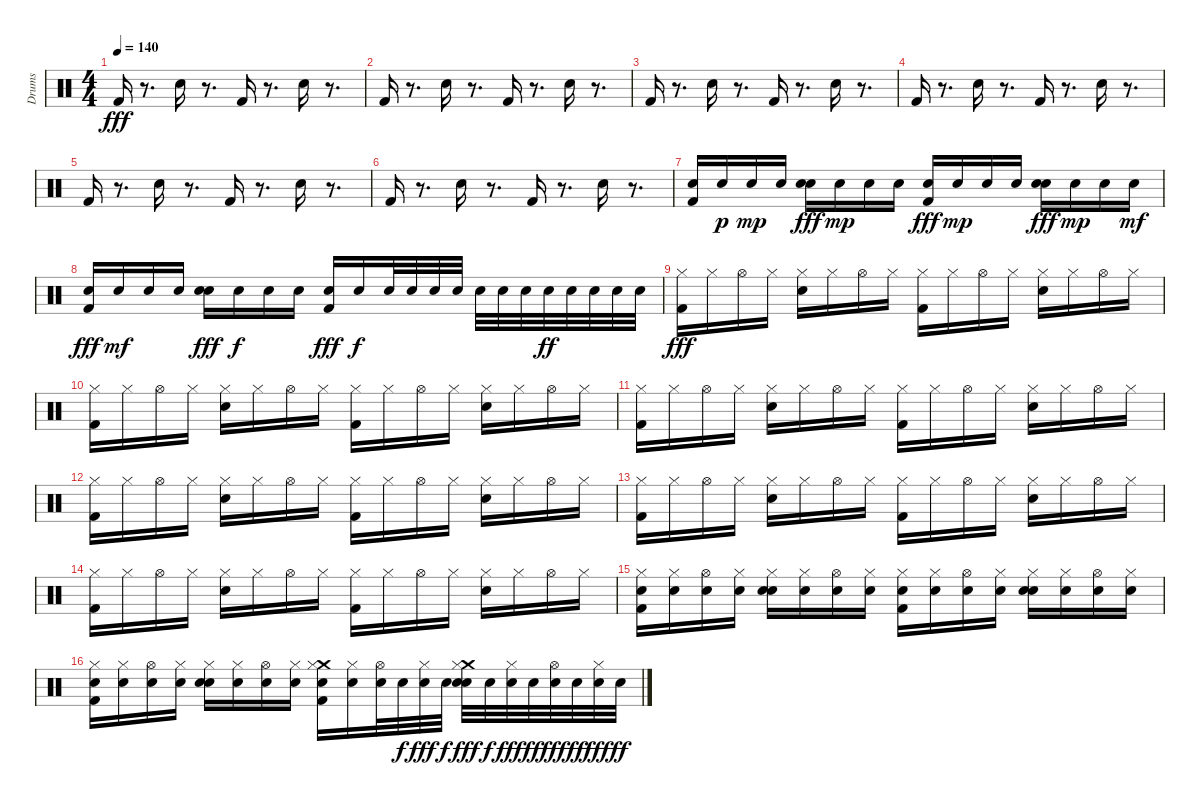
\track ("Drums" "Drums") {instrument percussion}
\staff {score}
\articulation defaults
\ts (4 4)
\tempo 140
\clef neutral
\ks c "Kick (hit) 2".16{dy fff}
r.8{d} "Electric Snare (hit)".16 r.8{d} "Kick (hit) 2".16 r.8{d} "Electric Snare (hit)".16 r.8{d} |
"Kick (hit) 2".16 r.8{d} "Electric Snare (hit)".16 r.8{d} "Kick (hit) 2".16 r.8{d} "Electric Snare (hit)".16 r.8{d} |
"Kick (hit) 2".16 r.8{d} "Electric Snare (hit)".16 r.8{d} "Kick (hit) 2".16 r.8{d} "Electric Snare (hit)".16 r.8{d} |
"Kick (hit) 2".16 r.8{d} "Electric Snare (hit)".16 r.8{d} "Kick (hit) 2".16 r.8{d} "Electric Snare (hit)".16 r.8{d} |
"Kick (hit) 2".16 r.8{d} "Electric Snare (hit)".16 r.8{d} "Kick (hit) 2".16 r.8{d} "Electric Snare (hit)".16 r.8{d} |
"Kick (hit) 2".16 r.8{d} "Electric Snare (hit)".16 r.8{d} "Kick (hit) 2".16 r.8{d} "Electric Snare (hit)".16 r.8{d} |
("Snare (hit) 2" "Kick (hit) 2").16 "Snare (hit) 2".16{dy p} "Snare (hit) 2".16{dy mp} "Snare (hit) 2".16 ("Snare (hit) 2" "Electric Snare (hit)").16{dy fff} "Snare (hit) 2".16{dy mp} "Snare (hit) 2".16 "Snare (hit) 2".16 ("Snare (hit) 2" "Kick (hit) 2").16{dy fff} "Snare (hit) 2".16{dy mp} "Snare (hit) 2".16 "Snare (hit) 2".16 ("Snare (hit) 2" "Electric Snare (hit)").16{dy fff} "Snare (hit) 2".16{dy mp} "Snare (hit) 2".16 "Snare (hit) 2".16{dy mf} |
("Snare (hit) 2" "Kick (hit) 2").16{dy fff} "Snare (hit) 2".16{dy mf} "Snare (hit) 2".16 "Snare (hit) 2".16 ("Snare (hit) 2" "Electric Snare (hit)").16{dy fff} "Snare (hit) 2".16{dy f} "Snare (hit) 2".16 "Snare (hit) 2".16 ("Snare (hit) 2" "Kick (hit) 2").16{dy fff} "Snare (hit) 2".16{dy f} "Snare (hit) 2".32 "Snare (hit) 2".32 "Snare (hit) 2".32 "Snare (hit) 2".32 "Snare (hit) 2".32 "Snare (hit) 2".32 "Snare (hit) 2".32 "Snare (hit) 2".32{dy ff} "Snare (hit) 2".32 "Snare (hit) 2".32 "Snare (hit) 2".32 "Snare (hit) 2".32 |
("Hi-Hat (closed)" "Kick (hit) 2").16{dy fff} "Hi-Hat (closed)".16 "Hi-Hat (open)".16 "Hi-Hat (closed)".16 ("Hi-Hat (closed)" "Electric Snare (hit)").16 "Hi-Hat (closed)".16 "Hi-Hat (open)".16 "Hi-Hat (closed)".16 ("Hi-Hat (closed)" "Kick (hit) 2").16 "Hi-Hat (closed)".16 "Hi-Hat (open)".16 "Hi-Hat (closed)".16 ("Hi-Hat (closed)" "Electric Snare (hit)").16 "Hi-Hat (closed)".16 "Hi-Hat (open)".16 "Hi-Hat (closed)".16 |
("Hi-Hat (closed)" "Kick (hit) 2").16 "Hi-Hat (closed)".16 "Hi-Hat (open)".16 "Hi-Hat (closed)".16 ("Hi-Hat (closed)" "Electric Snare (hit)").16 "Hi-Hat (closed)".16 "Hi-Hat (open)".16 "Hi-Hat (closed)".16 ("Hi-Hat (closed)" "Kick (hit) 2").16 "Hi-Hat (closed)".16 "Hi-Hat (open)".16 "Hi-Hat (closed)".16 ("Hi-Hat (closed)" "Electric Snare (hit)").16 "Hi-Hat (closed)".16 "Hi-Hat (open)".16 "Hi-Hat (closed)".16 |
("Hi-Hat (closed)" "Kick (hit) 2").16 "Hi-Hat (closed)".16 "Hi-Hat (open)".16 "Hi-Hat (closed)".16 ("Hi-Hat (closed)" "Electric Snare (hit)").16 "Hi-Hat (closed)".16 "Hi-Hat (open)".16 "Hi-Hat (closed)".16 ("Hi-Hat (closed)" "Kick (hit) 2").16 "Hi-Hat (closed)".16 "Hi-Hat (open)".16 "Hi-Hat (closed)".16 ("Hi-Hat (closed)" "Electric Snare (hit)").16 "Hi-Hat (closed)".16 "Hi-Hat (open)".16 "Hi-Hat (closed)".16 |
("Hi-Hat (closed)" "Kick (hit) 2").16 "Hi-Hat (closed)".16 "Hi-Hat (open)".16 "Hi-Hat (closed)".16 ("Hi-Hat (closed)" "Electric Snare (hit)").16 "Hi-Hat (closed)".16 "Hi-Hat (open)".16 "Hi-Hat (closed)".16 ("Hi-Hat (closed)" "Kick (hit) 2").16 "Hi-Hat (closed)".16 "Hi-Hat (open)".16 "Hi-Hat (closed)".16 ("Hi-Hat (closed)" "Electric Snare (hit)").16 "Hi-Hat (closed)".16 "Hi-Hat (open)".16 "Hi-Hat (closed)".16 |
("Hi-Hat (closed)" "Kick (hit) 2").16 "Hi-Hat (closed)".16 "Hi-Hat (open)".16 "Hi-Hat (closed)".16 ("Hi-Hat (closed)" "Electric Snare (hit)").16 "Hi-Hat (closed)".16 "Hi-Hat (open)".16 "Hi-Hat (closed)".16 ("Hi-Hat (closed)" "Kick (hit) 2").16 "Hi-Hat (closed)".16 "Hi-Hat (open)".16 "Hi-Hat (closed)".16 ("Hi-Hat (closed)" "Electric Snare (hit)").16 "Hi-Hat (closed)".16 "Hi-Hat (open)".16 "Hi-Hat (closed)".16 |
("Hi-Hat (closed)" "Kick (hit) 2").16 "Hi-Hat (closed)".16 "Hi-Hat (open)".16 "Hi-Hat (closed)".16 ("Hi-Hat (closed)" "Electric Snare (hit)").16 "Hi-Hat (closed)".16 "Hi-Hat (open)".16 "Hi-Hat (closed)".16 ("Hi-Hat (closed)" "Kick (hit) 2").16 "Hi-Hat (closed)".16 "Hi-Hat (open)".16 "Hi-Hat (closed)".16 ("Hi-Hat (closed)" "Electric Snare (hit)").16 "Hi-Hat (closed)".16 "Hi-Hat (open)".16 "Hi-Hat (closed)".16 |
("Snare (hit) 2" "Hi-Hat (closed)" "Kick (hit) 2").16 ("Snare (hit) 2" "Hi-Hat (closed)").16 ("Snare (hit) 2" "Hi-Hat (open)").16 ("Snare (hit) 2" "Hi-Hat (closed)").16 ("Snare (hit) 2" "Hi-Hat (closed)" "Electric Snare (hit)").16 ("Snare (hit) 2" "Hi-Hat (closed)").16 ("Snare (hit) 2" "Hi-Hat (open)").16 ("Snare (hit) 2" "Hi-Hat (closed)").16 ("Snare (hit) 2" "Hi-Hat (closed)" "Kick (hit) 2").16 ("Snare (hit) 2" "Hi-Hat (closed)").16 ("Snare (hit) 2" "Hi-Hat (open)").16 ("Snare (hit) 2" "Hi-Hat (closed)").16 ("Snare (hit) 2" "Hi-Hat (closed)" "Electric Snare (hit)").16 ("Snare (hit) 2" "Hi-Hat (closed)").16 ("Snare (hit) 2" "Hi-Hat (open)").16 ("Snare (hit) 2" "Hi-Hat (closed)").16 |
("Snare (hit) 2" "Hi-Hat (closed)" "Kick (hit) 2").16 ("Snare (hit) 2" "Hi-Hat (closed)").16 ("Snare (hit) 2" "Hi-Hat (open)").16 ("Snare (hit) 2" "Hi-Hat (closed)").16 ("Snare (hit) 2" "Hi-Hat (closed)" "Electric Snare (hit)").16 ("Snare (hit) 2" "Hi-Hat (closed)").16 ("Snare (hit) 2" "Hi-Hat (open)").16 ("Snare (hit) 2" "Hi-Hat (closed)").16 ("Crash medium (hit)" "Snare (hit) 2" "Hi-Hat (closed)" "Kick (hit) 2").16 ("Snare (hit) 2" "Hi-Hat (closed)").16 ("Snare (hit) 2" "Hi-Hat (open)").32 "Snare (hit) 2".32{dy f} ("Snare (hit) 2" "Hi-Hat (closed)").32{dy fff} "Snare (hit) 2".32{dy f} ("Crash medium (hit)" "Snare (hit) 2" "Hi-Hat (closed)" "Electric Snare (hit)").32{dy fff} "Snare (hit) 2".32{dy f} ("Snare (hit) 2" "Hi-Hat (closed)").32{dy fff} "Snare (hit) 2".32{dy ff} ("Snare (hit) 2" "Hi-Hat (open)").32{dy fff} "Snare (hit) 2".32{dy ff} ("Snare (hit) 2" "Hi-Hat (closed)").32{dy fff} "Snare (hit) 2".32{dy ff}
